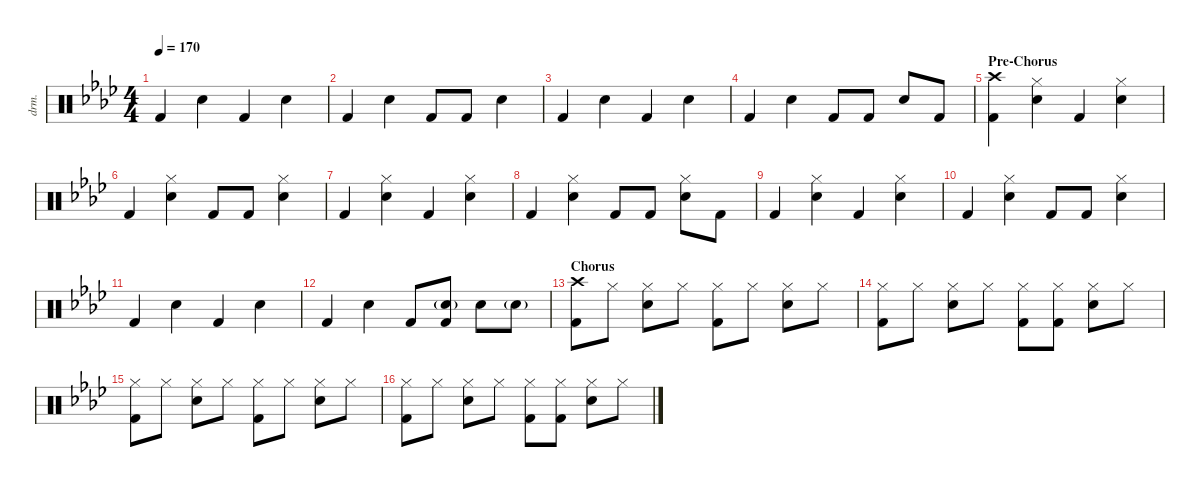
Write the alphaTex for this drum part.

\defaultSystemsLayout 4
\hideDynamics
\bracketExtendMode nobrackets
\otherSystemsTrackNameOrientation horizontal
\track ("Drumkit" "drm.") {instrument percussion}
\staff {score}
\articulation defaults
\ts (4 4)
\tempo 170
\clef neutral
\ks fminor "Kick (hit) 2"{acc forcenatural}.4{dy mf beam Up} "Snare (hit) 2"{acc forcenatural}.4{beam Down} "Kick (hit) 2"{acc forcenatural}.4{beam Up} "Snare (hit) 2"{acc forcenatural}.4{beam Down}
|
"Kick (hit) 2"{acc forcenatural}.4{beam Up} "Snare (hit) 2"{acc forcenatural}.4{beam Down} "Kick (hit) 2"{acc forcenatural}.8{beam Up} "Kick (hit) 2"{acc forcenatural}.8{beam Up} "Snare (hit) 2"{acc forcenatural}.4{beam Down} |
"Kick (hit) 2"{acc forcenatural}.4{beam Up} "Snare (hit) 2"{acc forcenatural}.4{beam Down} "Kick (hit) 2"{acc forcenatural}.4{beam Up} "Snare (hit) 2"{acc forcenatural}.4{beam Down} |
"Kick (hit) 2"{acc forcenatural}.4{beam Up} "Snare (hit) 2"{acc forcenatural}.4{beam Down} "Kick (hit) 2"{acc forcenatural}.8{beam Up} "Kick (hit) 2"{acc forcenatural}.8{beam Up} "Snare (hit) 2"{acc forcenatural}.8{beam Up} "Kick (hit) 2"{acc forcenatural}.8{beam Up} |
\section ("" "Pre-Chorus")
("Kick (hit) 2"{acc forcenatural} "Crash high (hit)"{acc forcenatural}).4{beam Down} ("Snare (hit) 2"{acc forcenatural} "Hi-Hat (closed)"{acc forcenatural}).4{beam Down} "Kick (hit) 2"{acc forcenatural}.4{beam Up} ("Snare (hit) 2"{acc forcenatural} "Hi-Hat (closed)"{acc forcenatural}).4{beam Down} |
"Kick (hit) 2"{acc forcenatural}.4{beam Up} ("Snare (hit) 2"{acc forcenatural} "Hi-Hat (closed)"{acc forcenatural}).4{beam Down} "Kick (hit) 2"{acc forcenatural}.8{beam Up} "Kick (hit) 2"{acc forcenatural}.8{beam Up} ("Snare (hit) 2"{acc forcenatural} "Hi-Hat (closed)"{acc forcenatural}).4{beam Down} |
"Kick (hit) 2"{acc forcenatural}.4{beam Up} ("Snare (hit) 2"{acc forcenatural} "Hi-Hat (closed)"{acc forcenatural}).4{beam Down} "Kick (hit) 2"{acc forcenatural}.4{beam Up} ("Snare (hit) 2"{acc forcenatural} "Hi-Hat (closed)"{acc forcenatural}).4{beam Down} |
"Kick (hit) 2"{acc forcenatural}.4{beam Up} ("Snare (hit) 2"{acc forcenatural} "Hi-Hat (closed)"{acc forcenatural}).4{beam Down} "Kick (hit) 2"{acc forcenatural}.8{beam Up} "Kick (hit) 2"{acc forcenatural}.8{beam Up} ("Snare (hit) 2"{acc forcenatural} "Hi-Hat (closed)"{acc forcenatural}).8{beam Down} "Kick (hit) 2"{acc forcenatural}.8{beam Down} |
"Kick (hit) 2"{acc forcenatural}.4{beam Up} ("Snare (hit) 2"{acc forcenatural} "Hi-Hat (closed)"{acc forcenatural}).4{beam Down} "Kick (hit) 2"{acc forcenatural}.4{beam Up} ("Snare (hit) 2"{acc forcenatural} "Hi-Hat (closed)"{acc forcenatural}).4{beam Down} |
"Kick (hit) 2"{acc forcenatural}.4{beam Up} ("Snare (hit) 2"{acc forcenatural} "Hi-Hat (closed)"{acc forcenatural}).4{beam Down} "Kick (hit) 2"{acc forcenatural}.8{beam Up} "Kick (hit) 2"{acc forcenatural}.8{beam Up} ("Snare (hit) 2"{acc forcenatural} "Hi-Hat (closed)"{acc forcenatural}).4{beam Down} |
"Kick (hit) 2"{acc forcenatural}.4{beam Up} "Snare (hit) 2"{acc forcenatural}.4{beam Down} "Kick (hit) 2"{acc forcenatural}.4{beam Up} "Snare (hit) 2"{acc forcenatural}.4{beam Down} |
"Kick (hit) 2"{acc forcenatural}.4{beam Up} "Snare (hit) 2"{acc forcenatural}.4{beam Down} "Kick (hit) 2"{acc forcenatural}.8{beam Up} ("Kick (hit) 2"{acc forcenatural} "Hand Clap (hit)"{g acc forcenatural}).8{beam Up} "Snare (hit) 2"{acc forcenatural}.8{beam Down} "Hand Clap (hit)"{g acc forcenatural}.8{beam Down} |
\section ("" "Chorus")
("Kick (hit) 2"{acc forcenatural} "Crash high (hit)"{acc forcenatural}).8{beam Down} "Hi-Hat (closed)"{acc forcenatural}.8{beam Down} ("Hi-Hat (closed)"{acc forcenatural} "Snare (hit) 2"{acc forcenatural}).8{beam Down} "Hi-Hat (closed)"{acc forcenatural}.8{beam Down} ("Hi-Hat (closed)"{acc forcenatural} "Kick (hit) 2"{acc forcenatural}).8{beam Down} "Hi-Hat (closed)"{acc forcenatural}.8{beam Down} ("Hi-Hat (closed)"{acc forcenatural} "Snare (hit) 2"{acc forcenatural}).8{beam Down} "Hi-Hat (closed)"{acc forcenatural}.8{beam Down} |
("Hi-Hat (closed)"{acc forcenatural} "Kick (hit) 2"{acc forcenatural}).8{beam Down} "Hi-Hat (closed)"{acc forcenatural}.8{beam Down} ("Hi-Hat (closed)"{acc forcenatural} "Snare (hit) 2"{acc forcenatural}).8{beam Down} "Hi-Hat (closed)"{acc forcenatural}.8{beam Down} ("Hi-Hat (closed)"{acc forcenatural} "Kick (hit) 2"{acc forcenatural}).8{beam Down} ("Hi-Hat (closed)"{acc forcenatural} "Kick (hit) 2"{acc forcenatural}).8{beam Down} ("Hi-Hat (closed)"{acc forcenatural} "Snare (hit) 2"{acc forcenatural}).8{beam Down} "Hi-Hat (closed)"{acc forcenatural}.8{beam Down} |
("Hi-Hat (closed)"{acc forcenatural} "Kick (hit) 2"{acc forcenatural}).8{beam Down} "Hi-Hat (closed)"{acc forcenatural}.8{beam Down} ("Hi-Hat (closed)"{acc forcenatural} "Snare (hit) 2"{acc forcenatural}).8{beam Down} "Hi-Hat (closed)"{acc forcenatural}.8{beam Down} ("Hi-Hat (closed)"{acc forcenatural} "Kick (hit) 2"{acc forcenatural}).8{beam Down} "Hi-Hat (closed)"{acc forcenatural}.8{beam Down} ("Hi-Hat (closed)"{acc forcenatural} "Snare (hit) 2"{acc forcenatural}).8{beam Down} "Hi-Hat (closed)"{acc forcenatural}.8{beam Down} |
("Hi-Hat (closed)"{acc forcenatural} "Kick (hit) 2"{acc forcenatural}).8{beam Down} "Hi-Hat (closed)"{acc forcenatural}.8{beam Down} ("Hi-Hat (closed)"{acc forcenatural} "Snare (hit) 2"{acc forcenatural}).8{beam Down} "Hi-Hat (closed)"{acc forcenatural}.8{beam Down} ("Hi-Hat (closed)"{acc forcenatural} "Kick (hit) 2"{acc forcenatural}).8{beam Down} ("Hi-Hat (closed)"{acc forcenatural} "Kick (hit) 2"{acc forcenatural}).8{beam Down} ("Hi-Hat (closed)"{acc forcenatural} "Snare (hit) 2"{acc forcenatural}).8{beam Down} "Hi-Hat (closed)"{acc forcenatural}.8{beam Down}
